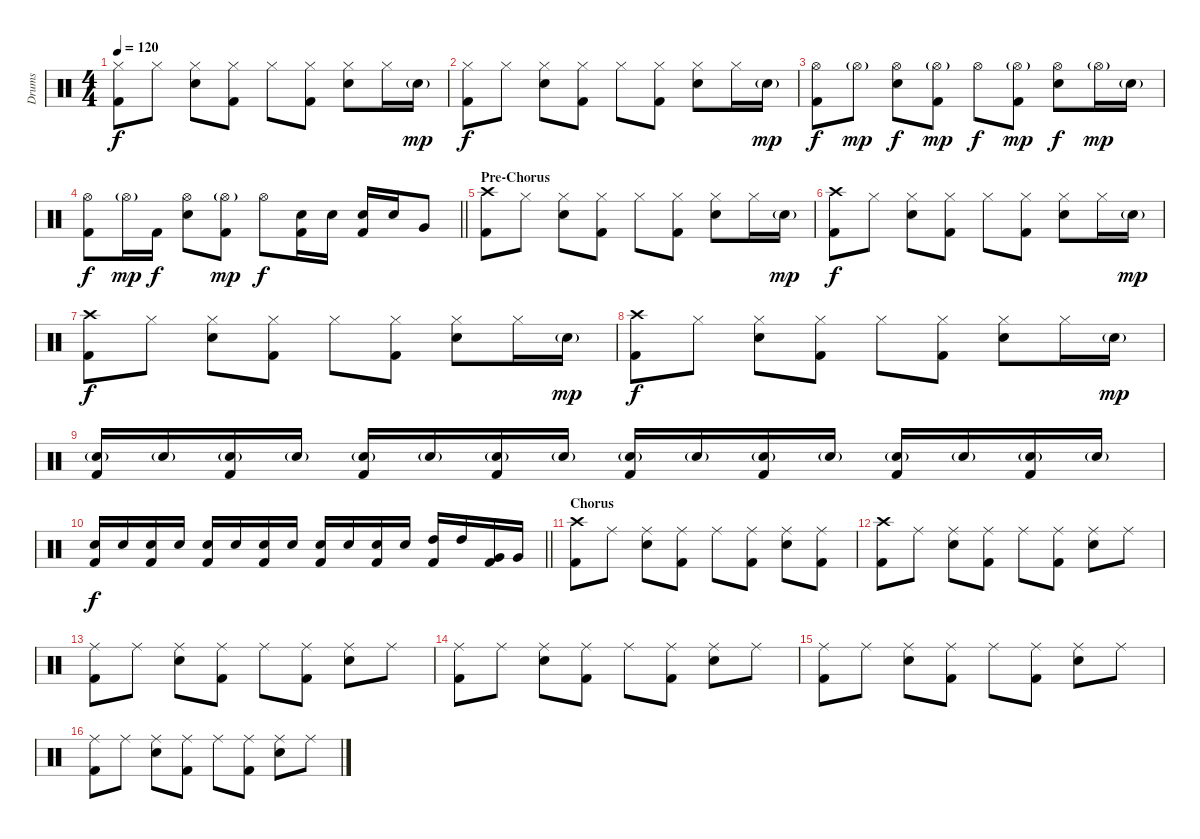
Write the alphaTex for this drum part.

\track ("Drums" "Drums") {instrument percussion}
\staff {score}
\articulation defaults
\ts (4 4)
\tempo 120
\clef neutral
\ks c
("Kick (hit) 2" "Hi-Hat (closed)").8{dy f} "Hi-Hat (closed)".8 ("Electric Snare (hit)" "Hi-Hat (closed)").8 ("Kick (hit) 2" "Hi-Hat (closed)").8 "Hi-Hat (closed)".8 ("Kick (hit) 2" "Hi-Hat (closed)").8 ("Electric Snare (hit)" "Hi-Hat (closed)").8 "Hi-Hat (closed)".16 "Electric Snare (hit)"{g}.16{dy mp} |
("Kick (hit) 2" "Hi-Hat (closed)").8{dy f} "Hi-Hat (closed)".8 ("Electric Snare (hit)" "Hi-Hat (closed)").8 ("Kick (hit) 2" "Hi-Hat (closed)").8 "Hi-Hat (closed)".8 ("Kick (hit) 2" "Hi-Hat (closed)").8 ("Electric Snare (hit)" "Hi-Hat (closed)").8 "Hi-Hat (closed)".16 "Electric Snare (hit)"{g}.16{dy mp} |
("Kick (hit) 2" "Hi-Hat (open)").8{dy f} "Hi-Hat (open)"{g}.8{dy mp} ("Electric Snare (hit)" "Hi-Hat (open)").8{dy f} ("Kick (hit) 2" "Hi-Hat (open)"{g}).8{dy mp} "Hi-Hat (open)".8{dy f} ("Kick (hit) 2" "Hi-Hat (open)"{g}).8{dy mp} ("Electric Snare (hit)" "Hi-Hat (open)").8{dy f} "Hi-Hat (open)"{g}.16{dy mp} "Electric Snare (hit)"{g}.16 |
\barLineRight lightlight
("Kick (hit) 2" "Hi-Hat (open)").8{dy f} "Hi-Hat (open)"{g}.16{dy mp} "Kick (hit) 2".16{dy f} ("Electric Snare (hit)" "Hi-Hat (open)").8 ("Kick (hit) 2" "Hi-Hat (open)"{g}).8{dy mp} "Hi-Hat (open)".8{dy f} ("Kick (hit) 2" "Electric Snare (hit)").16 "Electric Snare (hit)".16 ("Kick (hit) 2" "Electric Snare (hit)").16 "Electric Snare (hit)".16 "Very Low Tom (hit)".8 |
\section ("" "Pre-Chorus")
("Kick (hit) 2" "Crash high (hit)").8 "Hi-Hat (closed)".8 ("Electric Snare (hit)" "Hi-Hat (closed)").8 ("Kick (hit) 2" "Hi-Hat (closed)").8 "Hi-Hat (closed)".8 ("Kick (hit) 2" "Hi-Hat (closed)").8 ("Electric Snare (hit)" "Hi-Hat (closed)").8 "Hi-Hat (closed)".16 "Electric Snare (hit)"{g}.16{dy mp} |
("Kick (hit) 2" "Crash high (hit)").8{dy f} "Hi-Hat (closed)".8 ("Electric Snare (hit)" "Hi-Hat (closed)").8 ("Kick (hit) 2" "Hi-Hat (closed)").8 "Hi-Hat (closed)".8 ("Kick (hit) 2" "Hi-Hat (closed)").8 ("Electric Snare (hit)" "Hi-Hat (closed)").8 "Hi-Hat (closed)".16 "Electric Snare (hit)"{g}.16{dy mp} |
("Kick (hit) 2" "Crash high (hit)").8{dy f} "Hi-Hat (closed)".8 ("Electric Snare (hit)" "Hi-Hat (closed)").8 ("Kick (hit) 2" "Hi-Hat (closed)").8 "Hi-Hat (closed)".8 ("Kick (hit) 2" "Hi-Hat (closed)").8 ("Electric Snare (hit)" "Hi-Hat (closed)").8 "Hi-Hat (closed)".16 "Electric Snare (hit)"{g}.16{dy mp} |
("Kick (hit) 2" "Crash high (hit)").8{dy f} "Hi-Hat (closed)".8 ("Electric Snare (hit)" "Hi-Hat (closed)").8 ("Kick (hit) 2" "Hi-Hat (closed)").8 "Hi-Hat (closed)".8 ("Kick (hit) 2" "Hi-Hat (closed)").8 ("Electric Snare (hit)" "Hi-Hat (closed)").8 "Hi-Hat (closed)".16 "Electric Snare (hit)"{g}.16{dy mp} |
("Kick (hit) 2" "Electric Snare (hit)"{g}).16 "Electric Snare (hit)"{g}.16 ("Kick (hit) 2" "Electric Snare (hit)"{g}).16 "Electric Snare (hit)"{g}.16 ("Kick (hit) 2" "Electric Snare (hit)"{g}).16 "Electric Snare (hit)"{g}.16 ("Kick (hit) 2" "Electric Snare (hit)"{g}).16 "Electric Snare (hit)"{g}.16 ("Kick (hit) 2" "Electric Snare (hit)"{g}).16 "Electric Snare (hit)"{g}.16 ("Kick (hit) 2" "Electric Snare (hit)"{g}).16 "Electric Snare (hit)"{g}.16 ("Kick (hit) 2" "Electric Snare (hit)"{g}).16 "Electric Snare (hit)"{g}.16 ("Kick (hit) 2" "Electric Snare (hit)"{g}).16 "Electric Snare (hit)"{g}.16 |
\barLineRight lightlight
("Kick (hit) 2" "Electric Snare (hit)").16{dy f} "Electric Snare (hit)".16 ("Kick (hit) 2" "Electric Snare (hit)").16 "Electric Snare (hit)".16 ("Kick (hit) 2" "Electric Snare (hit)").16 "Electric Snare (hit)".16 ("Kick (hit) 2" "Electric Snare (hit)").16 "Electric Snare (hit)".16 ("Kick (hit) 2" "Electric Snare (hit)").16 "Electric Snare (hit)".16 ("Kick (hit) 2" "Electric Snare (hit)").16 "Electric Snare (hit)".16 ("Kick (hit) 2" "High Tom (hit)").16 "High Tom (hit)".16 ("Kick (hit) 2" "Very Low Tom (hit)").16 "Very Low Tom (hit)".16 |
\section ("" "Chorus")
("Kick (hit) 2" "Crash high (hit)").8 "Ride (middle)".8 ("Electric Snare (hit)" "Ride (middle)").8 ("Kick (hit) 2" "Ride (middle)").8 "Ride (middle)".8 ("Kick (hit) 2" "Ride (middle)").8 ("Electric Snare (hit)" "Ride (middle)").8 ("Kick (hit) 2" "Ride (middle)").8 |
("Kick (hit) 2" "Crash high (hit)").8 "Ride (middle)".8 ("Electric Snare (hit)" "Ride (middle)").8 ("Kick (hit) 2" "Ride (middle)").8 "Ride (middle)".8 ("Kick (hit) 2" "Ride (middle)").8 ("Electric Snare (hit)" "Ride (middle)").8 "Ride (middle)".8 |
("Kick (hit) 2" "Ride (middle)").8 "Ride (middle)".8 ("Electric Snare (hit)" "Ride (middle)").8 ("Kick (hit) 2" "Ride (middle)").8 "Ride (middle)".8 ("Kick (hit) 2" "Ride (middle)").8 ("Electric Snare (hit)" "Ride (middle)").8 "Ride (middle)".8 |
("Kick (hit) 2" "Ride (middle)").8 "Ride (middle)".8 ("Electric Snare (hit)" "Ride (middle)").8 ("Kick (hit) 2" "Ride (middle)").8 "Ride (middle)".8 ("Kick (hit) 2" "Ride (middle)").8 ("Electric Snare (hit)" "Ride (middle)").8 "Ride (middle)".8 |
("Kick (hit) 2" "Ride (middle)").8 "Ride (middle)".8 ("Electric Snare (hit)" "Ride (middle)").8 ("Kick (hit) 2" "Ride (middle)").8 "Ride (middle)".8 ("Kick (hit) 2" "Ride (middle)").8 ("Electric Snare (hit)" "Ride (middle)").8 "Ride (middle)".8 |
("Kick (hit) 2" "Ride (middle)").8 "Ride (middle)".8 ("Electric Snare (hit)" "Ride (middle)").8 ("Kick (hit) 2" "Ride (middle)").8 "Ride (middle)".8 ("Kick (hit) 2" "Ride (middle)").8 ("Electric Snare (hit)" "Ride (middle)").8 "Ride (middle)".8
